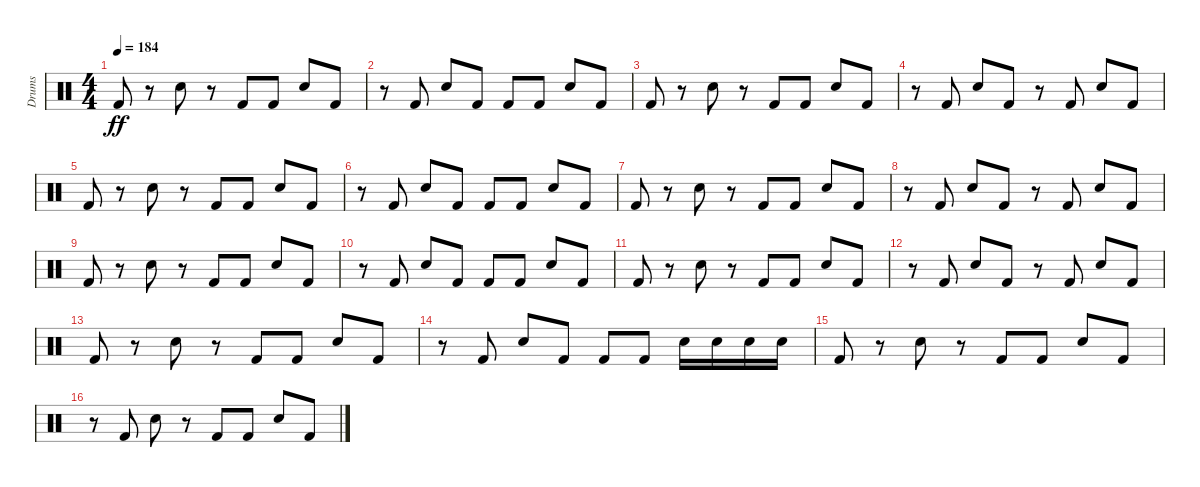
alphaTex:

\track ("Drums" "Drums") {instrument percussion}
\staff {score}
\articulation defaults
\ts (4 4)
\tempo 184
\clef neutral
\ks c "Kick (hit) 2".8{dy ff}
r.8 "Electric Snare (hit)".8 r.8 "Kick (hit) 2".8 "Kick (hit) 2".8 "Electric Snare (hit)".8 "Kick (hit) 2".8 |
r.8 "Kick (hit) 2".8 "Electric Snare (hit)".8 "Kick (hit) 2".8 "Kick (hit) 2".8 "Kick (hit) 2".8 "Electric Snare (hit)".8 "Kick (hit) 2".8 |
"Kick (hit) 2".8 r.8 "Electric Snare (hit)".8 r.8 "Kick (hit) 2".8 "Kick (hit) 2".8 "Electric Snare (hit)".8 "Kick (hit) 2".8 |
r.8 "Kick (hit) 2".8 "Electric Snare (hit)".8 "Kick (hit) 2".8 r.8 "Kick (hit) 2".8 "Electric Snare (hit)".8 "Kick (hit) 2".8 |
"Kick (hit) 2".8 r.8 "Electric Snare (hit)".8 r.8 "Kick (hit) 2".8 "Kick (hit) 2".8 "Electric Snare (hit)".8 "Kick (hit) 2".8 |
r.8 "Kick (hit) 2".8 "Electric Snare (hit)".8 "Kick (hit) 2".8 "Kick (hit) 2".8 "Kick (hit) 2".8 "Electric Snare (hit)".8 "Kick (hit) 2".8 |
"Kick (hit) 2".8 r.8 "Electric Snare (hit)".8 r.8 "Kick (hit) 2".8 "Kick (hit) 2".8 "Electric Snare (hit)".8 "Kick (hit) 2".8 |
r.8 "Kick (hit) 2".8 "Electric Snare (hit)".8 "Kick (hit) 2".8 r.8 "Kick (hit) 2".8 "Electric Snare (hit)".8 "Kick (hit) 2".8 |
"Kick (hit) 2".8 r.8 "Electric Snare (hit)".8 r.8 "Kick (hit) 2".8 "Kick (hit) 2".8 "Electric Snare (hit)".8 "Kick (hit) 2".8 |
r.8 "Kick (hit) 2".8 "Electric Snare (hit)".8 "Kick (hit) 2".8 "Kick (hit) 2".8 "Kick (hit) 2".8 "Electric Snare (hit)".8 "Kick (hit) 2".8 |
"Kick (hit) 2".8 r.8 "Electric Snare (hit)".8 r.8 "Kick (hit) 2".8 "Kick (hit) 2".8 "Electric Snare (hit)".8 "Kick (hit) 2".8 |
r.8 "Kick (hit) 2".8 "Electric Snare (hit)".8 "Kick (hit) 2".8 r.8 "Kick (hit) 2".8 "Electric Snare (hit)".8 "Kick (hit) 2".8 |
"Kick (hit) 2".8 r.8 "Electric Snare (hit)".8 r.8 "Kick (hit) 2".8 "Kick (hit) 2".8 "Electric Snare (hit)".8 "Kick (hit) 2".8 |
r.8 "Kick (hit) 2".8 "Electric Snare (hit)".8 "Kick (hit) 2".8 "Kick (hit) 2".8 "Kick (hit) 2".8 "Electric Snare (hit)".16 "Electric Snare (hit)".16 "Electric Snare (hit)".16 "Electric Snare (hit)".16 |
"Kick (hit) 2".8 r.8 "Electric Snare (hit)".8 r.8 "Kick (hit) 2".8 "Kick (hit) 2".8 "Electric Snare (hit)".8 "Kick (hit) 2".8 |
r.8 "Kick (hit) 2".8 "Electric Snare (hit)".8 r.8 "Kick (hit) 2".8 "Kick (hit) 2".8 "Electric Snare (hit)".8 "Kick (hit) 2".8
